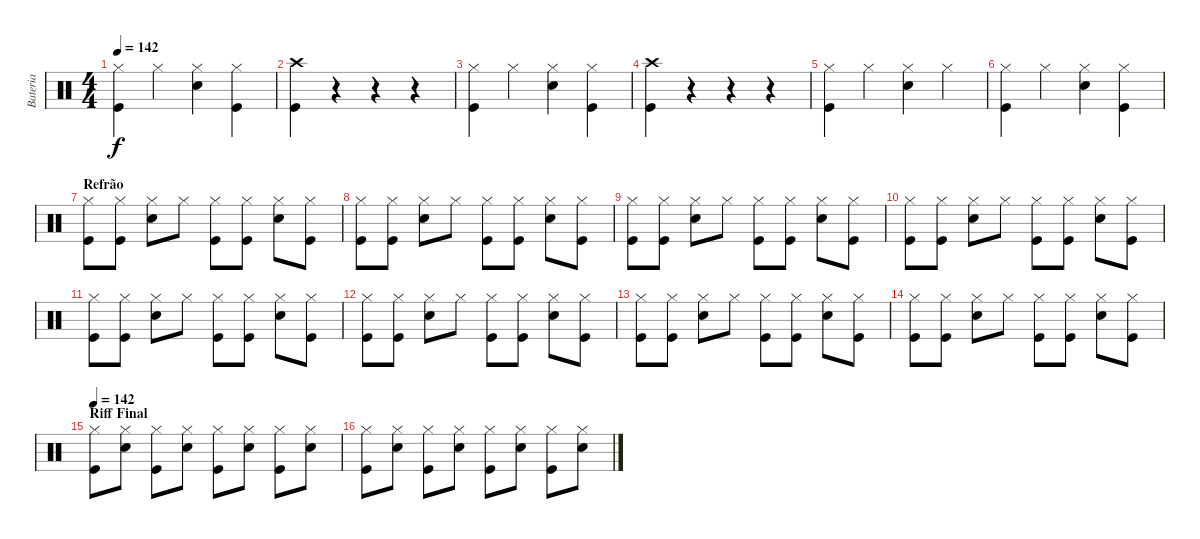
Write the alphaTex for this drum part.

\track ("Bateria" "Bateria") {instrument percussion}
\staff {score}
\articulation defaults
\ts (4 4)
\tempo 142
\clef neutral
\ks c
("Hi-Hat (closed)" "Kick (hit)").4{dy f} "Hi-Hat (closed)".4 ("Hi-Hat (closed)" "Snare (hit) 2").4 ("Hi-Hat (closed)" "Kick (hit)").4 |
("Crash high (hit)" "Kick (hit)").4 r.4 r.4 r.4 |
("Hi-Hat (closed)" "Kick (hit)").4 "Hi-Hat (closed)".4 ("Hi-Hat (closed)" "Snare (hit) 2").4 ("Hi-Hat (closed)" "Kick (hit)").4 |
("Crash high (hit)" "Kick (hit)").4 r.4 r.4 r.4 |
("Hi-Hat (closed)" "Kick (hit)").4 "Hi-Hat (closed)".4 ("Hi-Hat (closed)" "Snare (hit) 2").4 "Hi-Hat (closed)".4 |
("Hi-Hat (closed)" "Kick (hit)").4 "Hi-Hat (closed)".4 ("Hi-Hat (closed)" "Snare (hit) 2").4 ("Hi-Hat (closed)" "Kick (hit)").4 |
\section ("" "Refrão")
("Hi-Hat (closed)" "Kick (hit)").8 ("Hi-Hat (closed)" "Kick (hit)").8 ("Hi-Hat (closed)" "Snare (hit) 2").8 "Hi-Hat (closed)".8 ("Hi-Hat (closed)" "Kick (hit)").8 ("Hi-Hat (closed)" "Kick (hit)").8 ("Hi-Hat (closed)" "Snare (hit) 2").8 ("Hi-Hat (closed)" "Kick (hit)").8 |
("Hi-Hat (closed)" "Kick (hit)").8 ("Hi-Hat (closed)" "Kick (hit)").8 ("Hi-Hat (closed)" "Snare (hit) 2").8 "Hi-Hat (closed)".8 ("Hi-Hat (closed)" "Kick (hit)").8 ("Hi-Hat (closed)" "Kick (hit)").8 ("Hi-Hat (closed)" "Snare (hit) 2").8 ("Hi-Hat (closed)" "Kick (hit)").8 |
("Hi-Hat (closed)" "Kick (hit)").8 ("Hi-Hat (closed)" "Kick (hit)").8 ("Hi-Hat (closed)" "Snare (hit) 2").8 "Hi-Hat (closed)".8 ("Hi-Hat (closed)" "Kick (hit)").8 ("Hi-Hat (closed)" "Kick (hit)").8 ("Hi-Hat (closed)" "Snare (hit) 2").8 ("Hi-Hat (closed)" "Kick (hit)").8 |
("Hi-Hat (closed)" "Kick (hit)").8 ("Hi-Hat (closed)" "Kick (hit)").8 ("Hi-Hat (closed)" "Snare (hit) 2").8 "Hi-Hat (closed)".8 ("Hi-Hat (closed)" "Kick (hit)").8 ("Hi-Hat (closed)" "Kick (hit)").8 ("Hi-Hat (closed)" "Snare (hit) 2").8 ("Hi-Hat (closed)" "Kick (hit)").8 |
("Hi-Hat (closed)" "Kick (hit)").8 ("Hi-Hat (closed)" "Kick (hit)").8 ("Hi-Hat (closed)" "Snare (hit) 2").8 "Hi-Hat (closed)".8 ("Hi-Hat (closed)" "Kick (hit)").8 ("Hi-Hat (closed)" "Kick (hit)").8 ("Hi-Hat (closed)" "Snare (hit) 2").8 ("Hi-Hat (closed)" "Kick (hit)").8 |
("Hi-Hat (closed)" "Kick (hit)").8 ("Hi-Hat (closed)" "Kick (hit)").8 ("Hi-Hat (closed)" "Snare (hit) 2").8 "Hi-Hat (closed)".8 ("Hi-Hat (closed)" "Kick (hit)").8 ("Hi-Hat (closed)" "Kick (hit)").8 ("Hi-Hat (closed)" "Snare (hit) 2").8 ("Hi-Hat (closed)" "Kick (hit)").8 |
("Hi-Hat (closed)" "Kick (hit)").8 ("Hi-Hat (closed)" "Kick (hit)").8 ("Hi-Hat (closed)" "Snare (hit) 2").8 "Hi-Hat (closed)".8 ("Hi-Hat (closed)" "Kick (hit)").8 ("Hi-Hat (closed)" "Kick (hit)").8 ("Hi-Hat (closed)" "Snare (hit) 2").8 ("Hi-Hat (closed)" "Kick (hit)").8 |
("Hi-Hat (closed)" "Kick (hit)").8 ("Hi-Hat (closed)" "Kick (hit)").8 ("Hi-Hat (closed)" "Snare (hit) 2").8 "Hi-Hat (closed)".8 ("Hi-Hat (closed)" "Kick (hit)").8 ("Hi-Hat (closed)" "Kick (hit)").8 ("Hi-Hat (closed)" "Snare (hit) 2").8 ("Hi-Hat (closed)" "Kick (hit)").8 |
\section ("" "Riff Final")
\tempo 142
("Hi-Hat (closed)" "Kick (hit)").8 ("Hi-Hat (closed)" "Snare (hit) 2").8 ("Hi-Hat (closed)" "Kick (hit)").8 ("Hi-Hat (closed)" "Snare (hit) 2").8 ("Hi-Hat (closed)" "Kick (hit)").8 ("Hi-Hat (closed)" "Snare (hit) 2").8 ("Hi-Hat (closed)" "Kick (hit)").8 ("Hi-Hat (closed)" "Snare (hit) 2").8 |
("Hi-Hat (closed)" "Kick (hit)").8 ("Hi-Hat (closed)" "Snare (hit) 2").8 ("Hi-Hat (closed)" "Kick (hit)").8 ("Hi-Hat (closed)" "Snare (hit) 2").8 ("Hi-Hat (closed)" "Kick (hit)").8 ("Hi-Hat (closed)" "Snare (hit) 2").8 ("Hi-Hat (closed)" "Kick (hit)").8 ("Hi-Hat (closed)" "Snare (hit) 2").8
